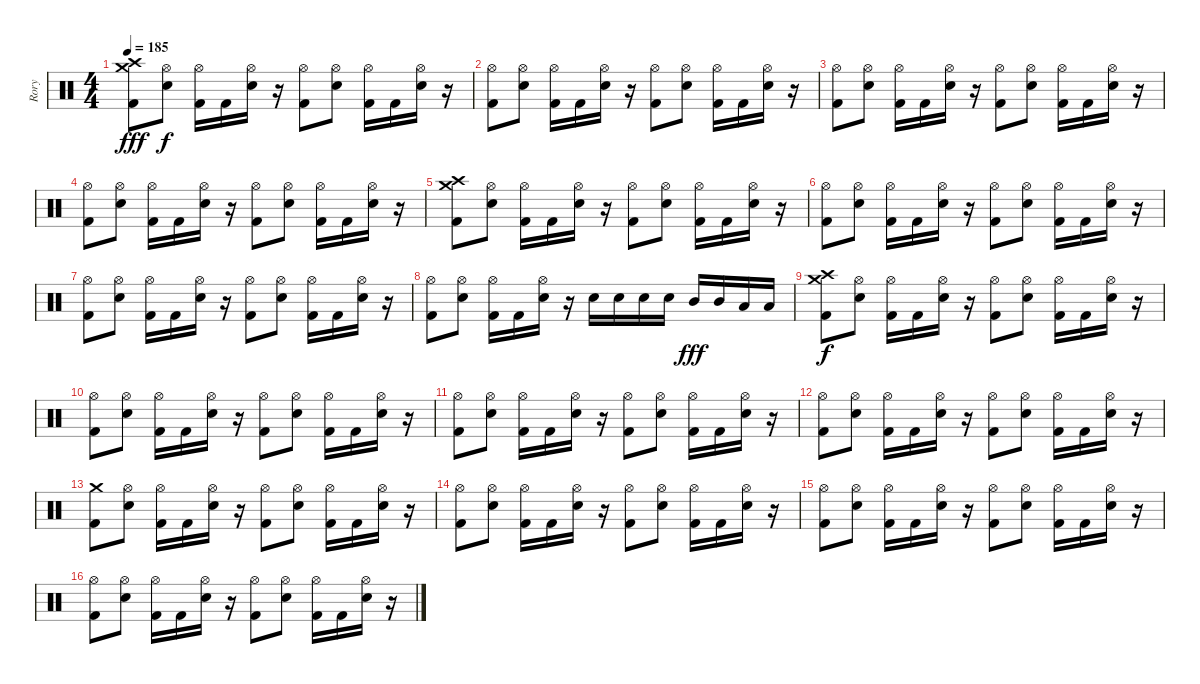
\track ("Rory" "Rory") {instrument percussion}
\staff {score}
\articulation defaults
\ts (4 4)
\tempo 185
\clef neutral
\ks c
("Crash medium (hit)" "Crash high (hit)" "Kick (hit) 2").8{dy fff} ("Hi-Hat (open)" "Electric Snare (hit)").8{dy f} ("Hi-Hat (open)" "Kick (hit) 2").16 "Kick (hit) 2".16 ("Hi-Hat (open)" "Electric Snare (hit)").16 r.16 ("Hi-Hat (open)" "Kick (hit) 2").8 ("Hi-Hat (open)" "Electric Snare (hit)").8 ("Hi-Hat (open)" "Kick (hit) 2").16 "Kick (hit) 2".16 ("Hi-Hat (open)" "Electric Snare (hit)").16 r.16 |
("Hi-Hat (open)" "Kick (hit) 2").8 ("Hi-Hat (open)" "Electric Snare (hit)").8 ("Hi-Hat (open)" "Kick (hit) 2").16 "Kick (hit) 2".16 ("Hi-Hat (open)" "Electric Snare (hit)").16 r.16 ("Hi-Hat (open)" "Kick (hit) 2").8 ("Hi-Hat (open)" "Electric Snare (hit)").8 ("Hi-Hat (open)" "Kick (hit) 2").16 "Kick (hit) 2".16 ("Hi-Hat (open)" "Electric Snare (hit)").16 r.16 |
("Hi-Hat (open)" "Kick (hit) 2").8 ("Hi-Hat (open)" "Electric Snare (hit)").8 ("Hi-Hat (open)" "Kick (hit) 2").16 "Kick (hit) 2".16 ("Hi-Hat (open)" "Electric Snare (hit)").16 r.16 ("Hi-Hat (open)" "Kick (hit) 2").8 ("Hi-Hat (open)" "Electric Snare (hit)").8 ("Hi-Hat (open)" "Kick (hit) 2").16 "Kick (hit) 2".16 ("Hi-Hat (open)" "Electric Snare (hit)").16 r.16 |
("Hi-Hat (open)" "Kick (hit) 2").8 ("Hi-Hat (open)" "Electric Snare (hit)").8 ("Hi-Hat (open)" "Kick (hit) 2").16 "Kick (hit) 2".16 ("Hi-Hat (open)" "Electric Snare (hit)").16 r.16 ("Hi-Hat (open)" "Kick (hit) 2").8 ("Hi-Hat (open)" "Electric Snare (hit)").8 ("Hi-Hat (open)" "Kick (hit) 2").16 "Kick (hit) 2".16 ("Hi-Hat (open)" "Electric Snare (hit)").16 r.16 |
("Crash medium (hit)" "Crash high (hit)" "Kick (hit) 2").8 ("Hi-Hat (open)" "Electric Snare (hit)").8 ("Hi-Hat (open)" "Kick (hit) 2").16 "Kick (hit) 2".16 ("Hi-Hat (open)" "Electric Snare (hit)").16 r.16 ("Hi-Hat (open)" "Kick (hit) 2").8 ("Hi-Hat (open)" "Electric Snare (hit)").8 ("Hi-Hat (open)" "Kick (hit) 2").16 "Kick (hit) 2".16 ("Hi-Hat (open)" "Electric Snare (hit)").16 r.16 |
("Hi-Hat (open)" "Kick (hit) 2").8 ("Hi-Hat (open)" "Electric Snare (hit)").8 ("Hi-Hat (open)" "Kick (hit) 2").16 "Kick (hit) 2".16 ("Hi-Hat (open)" "Electric Snare (hit)").16 r.16 ("Hi-Hat (open)" "Kick (hit) 2").8 ("Hi-Hat (open)" "Electric Snare (hit)").8 ("Hi-Hat (open)" "Kick (hit) 2").16 "Kick (hit) 2".16 ("Hi-Hat (open)" "Electric Snare (hit)").16 r.16 |
("Hi-Hat (open)" "Kick (hit) 2").8 ("Hi-Hat (open)" "Electric Snare (hit)").8 ("Hi-Hat (open)" "Kick (hit) 2").16 "Kick (hit) 2".16 ("Hi-Hat (open)" "Electric Snare (hit)").16 r.16 ("Hi-Hat (open)" "Kick (hit) 2").8 ("Hi-Hat (open)" "Electric Snare (hit)").8 ("Hi-Hat (open)" "Kick (hit) 2").16 "Kick (hit) 2".16 ("Hi-Hat (open)" "Electric Snare (hit)").16 r.16 |
("Hi-Hat (open)" "Kick (hit) 2").8 ("Hi-Hat (open)" "Electric Snare (hit)").8 ("Hi-Hat (open)" "Kick (hit) 2").16 "Kick (hit) 2".16 ("Hi-Hat (open)" "Electric Snare (hit)").16 r.16 "Electric Snare (hit)".16 "Electric Snare (hit)".16 "Electric Snare (hit)".16 "Electric Snare (hit)".16 "Mid Tom (hit)".16{dy fff} "Mid Tom (hit)".16 "Low Tom (hit)".16 "Low Tom (hit)".16 |
("Crash medium (hit)" "Crash high (hit)" "Kick (hit) 2").8{dy f} ("Hi-Hat (open)" "Electric Snare (hit)").8 ("Hi-Hat (open)" "Kick (hit) 2").16 "Kick (hit) 2".16 ("Hi-Hat (open)" "Electric Snare (hit)").16 r.16 ("Hi-Hat (open)" "Kick (hit) 2").8 ("Hi-Hat (open)" "Electric Snare (hit)").8 ("Hi-Hat (open)" "Kick (hit) 2").16 "Kick (hit) 2".16 ("Hi-Hat (open)" "Electric Snare (hit)").16 r.16 |
("Hi-Hat (open)" "Kick (hit) 2").8 ("Hi-Hat (open)" "Electric Snare (hit)").8 ("Hi-Hat (open)" "Kick (hit) 2").16 "Kick (hit) 2".16 ("Hi-Hat (open)" "Electric Snare (hit)").16 r.16 ("Hi-Hat (open)" "Kick (hit) 2").8 ("Hi-Hat (open)" "Electric Snare (hit)").8 ("Hi-Hat (open)" "Kick (hit) 2").16 "Kick (hit) 2".16 ("Hi-Hat (open)" "Electric Snare (hit)").16 r.16 |
("Hi-Hat (open)" "Kick (hit) 2").8 ("Hi-Hat (open)" "Electric Snare (hit)").8 ("Hi-Hat (open)" "Kick (hit) 2").16 "Kick (hit) 2".16 ("Hi-Hat (open)" "Electric Snare (hit)").16 r.16 ("Hi-Hat (open)" "Kick (hit) 2").8 ("Hi-Hat (open)" "Electric Snare (hit)").8 ("Hi-Hat (open)" "Kick (hit) 2").16 "Kick (hit) 2".16 ("Hi-Hat (open)" "Electric Snare (hit)").16 r.16 |
("Hi-Hat (open)" "Kick (hit) 2").8 ("Hi-Hat (open)" "Electric Snare (hit)").8 ("Hi-Hat (open)" "Kick (hit) 2").16 "Kick (hit) 2".16 ("Hi-Hat (open)" "Electric Snare (hit)").16 r.16 ("Hi-Hat (open)" "Kick (hit) 2").8 ("Hi-Hat (open)" "Electric Snare (hit)").8 ("Hi-Hat (open)" "Kick (hit) 2").16 "Kick (hit) 2".16 ("Hi-Hat (open)" "Electric Snare (hit)").16 r.16 |
("Crash medium (hit)" "Kick (hit) 2").8 ("Hi-Hat (open)" "Electric Snare (hit)").8 ("Hi-Hat (open)" "Kick (hit) 2").16 "Kick (hit) 2".16 ("Hi-Hat (open)" "Electric Snare (hit)").16 r.16 ("Hi-Hat (open)" "Kick (hit) 2").8 ("Hi-Hat (open)" "Electric Snare (hit)").8 ("Hi-Hat (open)" "Kick (hit) 2").16 "Kick (hit) 2".16 ("Hi-Hat (open)" "Electric Snare (hit)").16 r.16 |
("Hi-Hat (open)" "Kick (hit) 2").8 ("Hi-Hat (open)" "Electric Snare (hit)").8 ("Hi-Hat (open)" "Kick (hit) 2").16 "Kick (hit) 2".16 ("Hi-Hat (open)" "Electric Snare (hit)").16 r.16 ("Hi-Hat (open)" "Kick (hit) 2").8 ("Hi-Hat (open)" "Electric Snare (hit)").8 ("Hi-Hat (open)" "Kick (hit) 2").16 "Kick (hit) 2".16 ("Hi-Hat (open)" "Electric Snare (hit)").16 r.16 |
("Hi-Hat (open)" "Kick (hit) 2").8 ("Hi-Hat (open)" "Electric Snare (hit)").8 ("Hi-Hat (open)" "Kick (hit) 2").16 "Kick (hit) 2".16 ("Hi-Hat (open)" "Electric Snare (hit)").16 r.16 ("Hi-Hat (open)" "Kick (hit) 2").8 ("Hi-Hat (open)" "Electric Snare (hit)").8 ("Hi-Hat (open)" "Kick (hit) 2").16 "Kick (hit) 2".16 ("Hi-Hat (open)" "Electric Snare (hit)").16 r.16 |
("Hi-Hat (open)" "Kick (hit) 2").8 ("Hi-Hat (open)" "Electric Snare (hit)").8 ("Hi-Hat (open)" "Kick (hit) 2").16 "Kick (hit) 2".16 ("Hi-Hat (open)" "Electric Snare (hit)").16 r.16 ("Hi-Hat (open)" "Kick (hit) 2").8 ("Hi-Hat (open)" "Electric Snare (hit)").8 ("Hi-Hat (open)" "Kick (hit) 2").16 "Kick (hit) 2".16 ("Hi-Hat (open)" "Electric Snare (hit)").16 r.16
